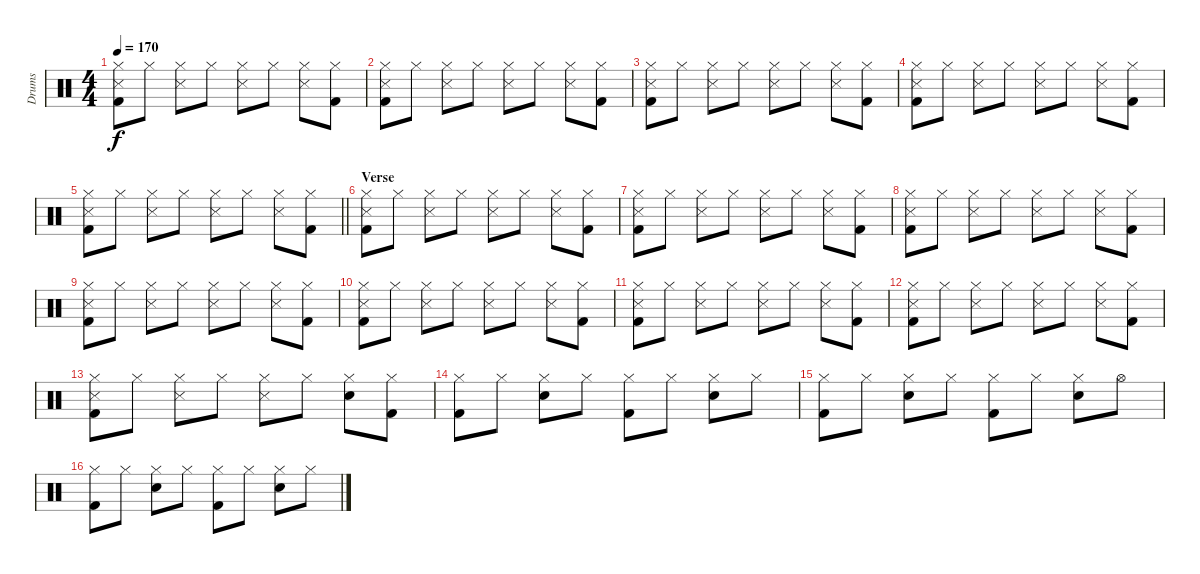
\track ("Drums" "Drums") {instrument percussion}
\staff {score}
\articulation defaults
\ts (4 4)
\tempo 170
\clef neutral
\ks c
("Hi-Hat (closed)" "Snare (side stick) 3" "Kick (hit) 2").8{dy f} "Hi-Hat (closed)".8 ("Hi-Hat (closed)" "Snare (side stick) 3").8 "Hi-Hat (closed)".8 ("Hi-Hat (closed)" "Snare (side stick) 3").8 "Hi-Hat (closed)".8 ("Hi-Hat (closed)" "Snare (side stick) 3").8 ("Hi-Hat (closed)" "Kick (hit) 2").8 |
("Hi-Hat (closed)" "Snare (side stick) 3" "Kick (hit) 2").8 "Hi-Hat (closed)".8 ("Hi-Hat (closed)" "Snare (side stick) 3").8 "Hi-Hat (closed)".8 ("Hi-Hat (closed)" "Snare (side stick) 3").8 "Hi-Hat (closed)".8 ("Hi-Hat (closed)" "Snare (side stick) 3").8 ("Hi-Hat (closed)" "Kick (hit) 2").8 |
("Hi-Hat (closed)" "Snare (side stick) 3" "Kick (hit) 2").8 "Hi-Hat (closed)".8 ("Hi-Hat (closed)" "Snare (side stick) 3").8 "Hi-Hat (closed)".8 ("Hi-Hat (closed)" "Snare (side stick) 3").8 "Hi-Hat (closed)".8 ("Hi-Hat (closed)" "Snare (side stick) 3").8 ("Hi-Hat (closed)" "Kick (hit) 2").8 |
("Hi-Hat (closed)" "Snare (side stick) 3" "Kick (hit) 2").8 "Hi-Hat (closed)".8 ("Hi-Hat (closed)" "Snare (side stick) 3").8 "Hi-Hat (closed)".8 ("Hi-Hat (closed)" "Snare (side stick) 3").8 "Hi-Hat (closed)".8 ("Hi-Hat (closed)" "Snare (side stick) 3").8 ("Hi-Hat (closed)" "Kick (hit) 2").8 |
\barLineRight lightlight
("Hi-Hat (closed)" "Snare (side stick) 3" "Kick (hit) 2").8 "Hi-Hat (closed)".8 ("Hi-Hat (closed)" "Snare (side stick) 3").8 "Hi-Hat (closed)".8 ("Hi-Hat (closed)" "Snare (side stick) 3").8 "Hi-Hat (closed)".8 ("Hi-Hat (closed)" "Snare (side stick) 3").8 ("Hi-Hat (closed)" "Kick (hit) 2").8 |
\section ("" "Verse ")
("Hi-Hat (closed)" "Snare (side stick) 3" "Kick (hit) 2").8 "Hi-Hat (closed)".8 ("Hi-Hat (closed)" "Snare (side stick) 3").8 "Hi-Hat (closed)".8 ("Hi-Hat (closed)" "Snare (side stick) 3").8 "Hi-Hat (closed)".8 ("Hi-Hat (closed)" "Snare (side stick) 3").8 ("Hi-Hat (closed)" "Kick (hit) 2").8 |
("Hi-Hat (closed)" "Snare (side stick) 3" "Kick (hit) 2").8 "Hi-Hat (closed)".8 ("Hi-Hat (closed)" "Snare (side stick) 3").8 "Hi-Hat (closed)".8 ("Hi-Hat (closed)" "Snare (side stick) 3").8 "Hi-Hat (closed)".8 ("Hi-Hat (closed)" "Snare (side stick) 3").8 ("Hi-Hat (closed)" "Kick (hit) 2").8 |
("Hi-Hat (closed)" "Snare (side stick) 3" "Kick (hit) 2").8 "Hi-Hat (closed)".8 ("Hi-Hat (closed)" "Snare (side stick) 3").8 "Hi-Hat (closed)".8 ("Hi-Hat (closed)" "Snare (side stick) 3").8 "Hi-Hat (closed)".8 ("Hi-Hat (closed)" "Snare (side stick) 3").8 ("Hi-Hat (closed)" "Kick (hit) 2").8 |
("Hi-Hat (closed)" "Snare (side stick) 3" "Kick (hit) 2").8 "Hi-Hat (closed)".8 ("Hi-Hat (closed)" "Snare (side stick) 3").8 "Hi-Hat (closed)".8 ("Hi-Hat (closed)" "Snare (side stick) 3").8 "Hi-Hat (closed)".8 ("Hi-Hat (closed)" "Snare (side stick) 3").8 ("Hi-Hat (closed)" "Kick (hit) 2").8 |
("Hi-Hat (closed)" "Snare (side stick) 3" "Kick (hit) 2").8 "Hi-Hat (closed)".8 ("Hi-Hat (closed)" "Snare (side stick) 3").8 "Hi-Hat (closed)".8 ("Hi-Hat (closed)" "Snare (side stick) 3").8 "Hi-Hat (closed)".8 ("Hi-Hat (closed)" "Snare (side stick) 3").8 ("Hi-Hat (closed)" "Kick (hit) 2").8 |
("Hi-Hat (closed)" "Snare (side stick) 3" "Kick (hit) 2").8 "Hi-Hat (closed)".8 ("Hi-Hat (closed)" "Snare (side stick) 3").8 "Hi-Hat (closed)".8 ("Hi-Hat (closed)" "Snare (side stick) 3").8 "Hi-Hat (closed)".8 ("Hi-Hat (closed)" "Snare (side stick) 3").8 ("Hi-Hat (closed)" "Kick (hit) 2").8 |
("Hi-Hat (closed)" "Snare (side stick) 3" "Kick (hit) 2").8 "Hi-Hat (closed)".8 ("Hi-Hat (closed)" "Snare (side stick) 3").8 "Hi-Hat (closed)".8 ("Hi-Hat (closed)" "Snare (side stick) 3").8 "Hi-Hat (closed)".8 ("Hi-Hat (closed)" "Snare (side stick) 3").8 ("Hi-Hat (closed)" "Kick (hit) 2").8 |
("Hi-Hat (closed)" "Snare (side stick) 3" "Kick (hit) 2").8 "Hi-Hat (closed)".8 ("Hi-Hat (closed)" "Snare (side stick) 3").8 "Hi-Hat (closed)".8 ("Hi-Hat (closed)" "Snare (side stick) 3").8 "Hi-Hat (closed)".8 ("Hi-Hat (closed)" "Snare (hit) 2").8 ("Hi-Hat (closed)" "Kick (hit) 2").8 |
("Hi-Hat (closed)" "Kick (hit) 2").8 "Hi-Hat (closed)".8 ("Hi-Hat (closed)" "Snare (hit) 2").8 "Hi-Hat (closed)".8 ("Hi-Hat (closed)" "Kick (hit) 2").8 "Hi-Hat (closed)".8 ("Hi-Hat (closed)" "Snare (hit) 2").8 "Hi-Hat (closed)".8 |
("Hi-Hat (closed)" "Kick (hit) 2").8 "Hi-Hat (closed)".8 ("Hi-Hat (closed)" "Snare (hit) 2").8 "Hi-Hat (closed)".8 ("Hi-Hat (closed)" "Kick (hit) 2").8 "Hi-Hat (closed)".8 ("Hi-Hat (closed)" "Snare (hit) 2").8 "Hi-Hat (open)".8 |
("Hi-Hat (closed)" "Kick (hit) 2").8 "Hi-Hat (closed)".8 ("Hi-Hat (closed)" "Snare (hit) 2").8 "Hi-Hat (closed)".8 ("Hi-Hat (closed)" "Kick (hit) 2").8 "Hi-Hat (closed)".8 ("Hi-Hat (closed)" "Snare (hit) 2").8 "Hi-Hat (closed)".8
